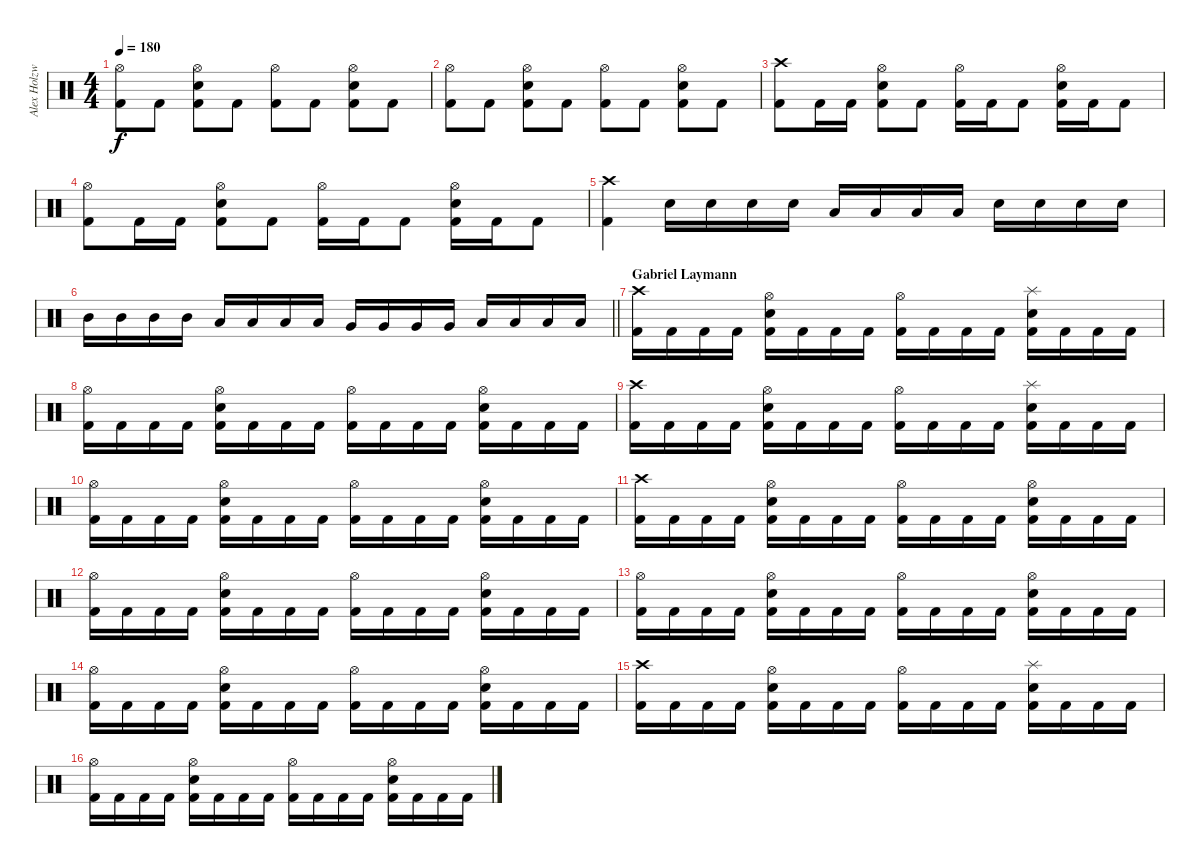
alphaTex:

\track ("Alex Holzwarth" "Alex Holzw") {instrument percussion}
\staff {score}
\articulation defaults
\ts (4 4)
\tempo 180
\clef neutral
\ks c
("Hi-Hat (open)" "Kick (hit) 2").8{dy f} "Kick (hit) 2".8 ("Hi-Hat (open)" "Electric Snare (hit)" "Kick (hit) 2").8 "Kick (hit) 2".8 ("Hi-Hat (open)" "Kick (hit) 2").8 "Kick (hit) 2".8 ("Hi-Hat (open)" "Electric Snare (hit)" "Kick (hit) 2").8 "Kick (hit) 2".8 |
("Hi-Hat (open)" "Kick (hit) 2").8 "Kick (hit) 2".8 ("Hi-Hat (open)" "Electric Snare (hit)" "Kick (hit) 2").8 "Kick (hit) 2".8 ("Hi-Hat (open)" "Kick (hit) 2").8 "Kick (hit) 2".8 ("Hi-Hat (open)" "Electric Snare (hit)" "Kick (hit) 2").8 "Kick (hit) 2".8 |
("Crash high (hit)" "Kick (hit) 2").8 "Kick (hit) 2".16 "Kick (hit) 2".16 ("Hi-Hat (open)" "Electric Snare (hit)" "Kick (hit) 2").8 "Kick (hit) 2".8 ("Hi-Hat (open)" "Kick (hit) 2").16 "Kick (hit) 2".16 "Kick (hit) 2".8 ("Hi-Hat (open)" "Electric Snare (hit)" "Kick (hit) 2").16 "Kick (hit) 2".16 "Kick (hit) 2".8 |
("Hi-Hat (open)" "Kick (hit) 2").8 "Kick (hit) 2".16 "Kick (hit) 2".16 ("Hi-Hat (open)" "Electric Snare (hit)" "Kick (hit) 2").8 "Kick (hit) 2".8 ("Hi-Hat (open)" "Kick (hit) 2").16 "Kick (hit) 2".16 "Kick (hit) 2".8 ("Hi-Hat (open)" "Electric Snare (hit)" "Kick (hit) 2").16 "Kick (hit) 2".16 "Kick (hit) 2".8 |
("Crash high (hit)" "Kick (hit) 2").4 "Electric Snare (hit)".16 "Electric Snare (hit)".16 "Electric Snare (hit)".16 "Electric Snare (hit)".16 "Low Floor Tom (hit)".16 "Low Floor Tom (hit)".16 "Low Floor Tom (hit)".16 "Low Floor Tom (hit)".16 "Electric Snare (hit)".16 "Electric Snare (hit)".16 "Electric Snare (hit)".16 "Electric Snare (hit)".16 |
\barLineRight lightlight "Mid Tom (hit)".16 "Mid Tom (hit)".16 "Mid Tom (hit)".16 "Mid Tom (hit)".16 "Low Tom (hit)".16 "Low Tom (hit)".16 "Low Tom (hit)".16 "Low Tom (hit)".16 "Very Low Tom (hit)".16 "Very Low Tom (hit)".16 "Very Low Tom (hit)".16 "Very Low Tom (hit)".16 "Low Floor Tom (hit)".16 "Low Floor Tom (hit)".16 "Low Floor Tom (hit)".16 "Low Floor Tom (hit)".16
|
\section ("" "Gabriel Laymann")
("Crash high (hit)" "Kick (hit) 2").16 "Kick (hit) 2".16 "Kick (hit) 2".16 "Kick (hit) 2".16 ("Hi-Hat (open)" "Electric Snare (hit)" "Kick (hit) 2").16 "Kick (hit) 2".16 "Kick (hit) 2".16 "Kick (hit) 2".16 ("Hi-Hat (open)" "Kick (hit) 2").16 "Kick (hit) 2".16 "Kick (hit) 2".16 "Kick (hit) 2".16 ("Splash (hit)" "Electric Snare (hit)" "Kick (hit) 2").16 "Kick (hit) 2".16 "Kick (hit) 2".16 "Kick (hit) 2".16 |
("Hi-Hat (open)" "Kick (hit) 2").16 "Kick (hit) 2".16 "Kick (hit) 2".16 "Kick (hit) 2".16 ("Hi-Hat (open)" "Electric Snare (hit)" "Kick (hit) 2").16 "Kick (hit) 2".16 "Kick (hit) 2".16 "Kick (hit) 2".16 ("Hi-Hat (open)" "Kick (hit) 2").16 "Kick (hit) 2".16 "Kick (hit) 2".16 "Kick (hit) 2".16 ("Hi-Hat (open)" "Electric Snare (hit)" "Kick (hit) 2").16 "Kick (hit) 2".16 "Kick (hit) 2".16 "Kick (hit) 2".16 |
("Crash high (hit)" "Kick (hit) 2").16 "Kick (hit) 2".16 "Kick (hit) 2".16 "Kick (hit) 2".16 ("Hi-Hat (open)" "Electric Snare (hit)" "Kick (hit) 2").16 "Kick (hit) 2".16 "Kick (hit) 2".16 "Kick (hit) 2".16 ("Hi-Hat (open)" "Kick (hit) 2").16 "Kick (hit) 2".16 "Kick (hit) 2".16 "Kick (hit) 2".16 ("Splash (hit)" "Electric Snare (hit)" "Kick (hit) 2").16 "Kick (hit) 2".16 "Kick (hit) 2".16 "Kick (hit) 2".16 |
("Hi-Hat (open)" "Kick (hit) 2").16 "Kick (hit) 2".16 "Kick (hit) 2".16 "Kick (hit) 2".16 ("Hi-Hat (open)" "Electric Snare (hit)" "Kick (hit) 2").16 "Kick (hit) 2".16 "Kick (hit) 2".16 "Kick (hit) 2".16 ("Hi-Hat (open)" "Kick (hit) 2").16 "Kick (hit) 2".16 "Kick (hit) 2".16 "Kick (hit) 2".16 ("Hi-Hat (open)" "Electric Snare (hit)" "Kick (hit) 2").16 "Kick (hit) 2".16 "Kick (hit) 2".16 "Kick (hit) 2".16 |
("Crash high (hit)" "Kick (hit) 2").16 "Kick (hit) 2".16 "Kick (hit) 2".16 "Kick (hit) 2".16 ("Hi-Hat (open)" "Electric Snare (hit)" "Kick (hit) 2").16 "Kick (hit) 2".16 "Kick (hit) 2".16 "Kick (hit) 2".16 ("Hi-Hat (open)" "Kick (hit) 2").16 "Kick (hit) 2".16 "Kick (hit) 2".16 "Kick (hit) 2".16 ("Hi-Hat (open)" "Electric Snare (hit)" "Kick (hit) 2").16 "Kick (hit) 2".16 "Kick (hit) 2".16 "Kick (hit) 2".16 |
("Hi-Hat (open)" "Kick (hit) 2").16 "Kick (hit) 2".16 "Kick (hit) 2".16 "Kick (hit) 2".16 ("Hi-Hat (open)" "Electric Snare (hit)" "Kick (hit) 2").16 "Kick (hit) 2".16 "Kick (hit) 2".16 "Kick (hit) 2".16 ("Hi-Hat (open)" "Kick (hit) 2").16 "Kick (hit) 2".16 "Kick (hit) 2".16 "Kick (hit) 2".16 ("Hi-Hat (open)" "Electric Snare (hit)" "Kick (hit) 2").16 "Kick (hit) 2".16 "Kick (hit) 2".16 "Kick (hit) 2".16 |
("Hi-Hat (open)" "Kick (hit) 2").16 "Kick (hit) 2".16 "Kick (hit) 2".16 "Kick (hit) 2".16 ("Hi-Hat (open)" "Electric Snare (hit)" "Kick (hit) 2").16 "Kick (hit) 2".16 "Kick (hit) 2".16 "Kick (hit) 2".16 ("Hi-Hat (open)" "Kick (hit) 2").16 "Kick (hit) 2".16 "Kick (hit) 2".16 "Kick (hit) 2".16 ("Hi-Hat (open)" "Electric Snare (hit)" "Kick (hit) 2").16 "Kick (hit) 2".16 "Kick (hit) 2".16 "Kick (hit) 2".16 |
("Hi-Hat (open)" "Kick (hit) 2").16 "Kick (hit) 2".16 "Kick (hit) 2".16 "Kick (hit) 2".16 ("Hi-Hat (open)" "Electric Snare (hit)" "Kick (hit) 2").16 "Kick (hit) 2".16 "Kick (hit) 2".16 "Kick (hit) 2".16 ("Hi-Hat (open)" "Kick (hit) 2").16 "Kick (hit) 2".16 "Kick (hit) 2".16 "Kick (hit) 2".16 ("Hi-Hat (open)" "Electric Snare (hit)" "Kick (hit) 2").16 "Kick (hit) 2".16 "Kick (hit) 2".16 "Kick (hit) 2".16 |
("Crash high (hit)" "Kick (hit) 2").16 "Kick (hit) 2".16 "Kick (hit) 2".16 "Kick (hit) 2".16 ("Hi-Hat (open)" "Electric Snare (hit)" "Kick (hit) 2").16 "Kick (hit) 2".16 "Kick (hit) 2".16 "Kick (hit) 2".16 ("Hi-Hat (open)" "Kick (hit) 2").16 "Kick (hit) 2".16 "Kick (hit) 2".16 "Kick (hit) 2".16 ("Splash (hit)" "Electric Snare (hit)" "Kick (hit) 2").16 "Kick (hit) 2".16 "Kick (hit) 2".16 "Kick (hit) 2".16 |
("Hi-Hat (open)" "Kick (hit) 2").16 "Kick (hit) 2".16 "Kick (hit) 2".16 "Kick (hit) 2".16 ("Hi-Hat (open)" "Electric Snare (hit)" "Kick (hit) 2").16 "Kick (hit) 2".16 "Kick (hit) 2".16 "Kick (hit) 2".16 ("Hi-Hat (open)" "Kick (hit) 2").16 "Kick (hit) 2".16 "Kick (hit) 2".16 "Kick (hit) 2".16 ("Hi-Hat (open)" "Electric Snare (hit)" "Kick (hit) 2").16 "Kick (hit) 2".16 "Kick (hit) 2".16 "Kick (hit) 2".16
